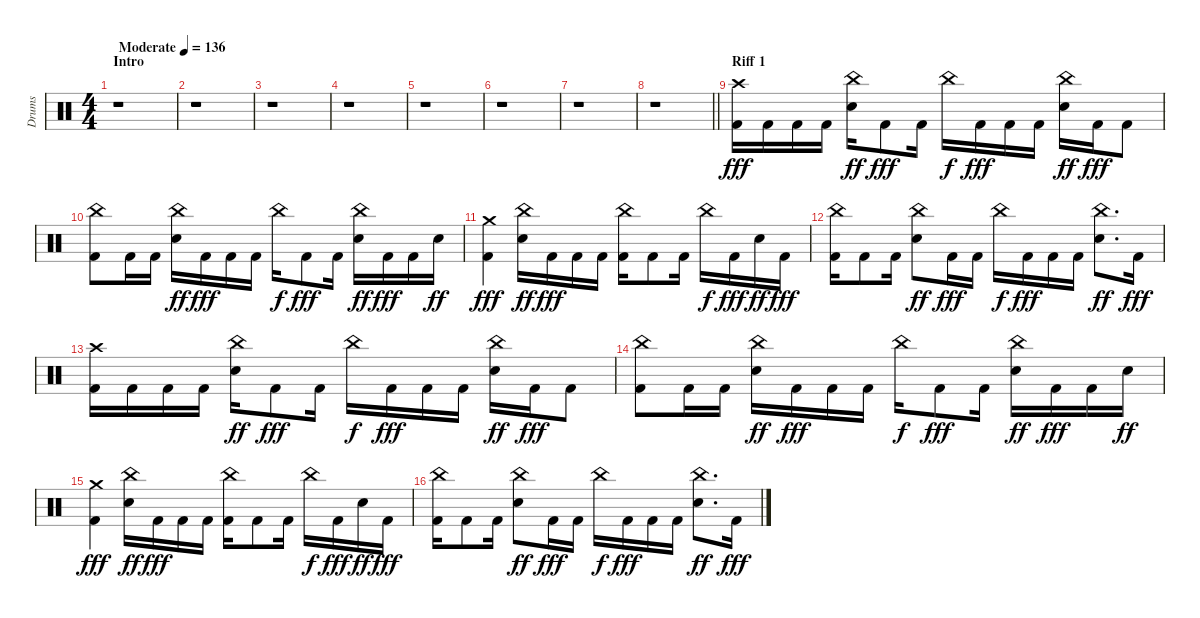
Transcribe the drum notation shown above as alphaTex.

\track ("Drums" "Drums") {instrument percussion}
\staff {score}
\articulation defaults
\ts (4 4)
\section ("" "Intro")
\tempo (136 "Moderate")
\clef neutral
\ks c
r.1{dy fff} |
r.1 |
r.1 |
r.1 |
r.1 |
r.1 |
r.1 |
\barLineRight lightlight
r.1 |
\section ("" "Riff 1")
("Kick (hit) 2" "Crash high (hit)").16 "Kick (hit) 2".16 "Kick (hit) 2".16 "Kick (hit) 2".16 ("Snare (hit) 2" "China (hit)").16{dy ff} "Kick (hit) 2".8{dy fff} "Kick (hit) 2".16 "China (hit)".16{dy f} "Kick (hit) 2".16{dy fff} "Kick (hit) 2".16 "Kick (hit) 2".16 ("Snare (hit) 2" "China (hit)").16{dy ff} "Kick (hit) 2".16{dy fff} "Kick (hit) 2".8 |
("Kick (hit) 2" "China (hit)").8 "Kick (hit) 2".16 "Kick (hit) 2".16 ("Snare (hit) 2" "China (hit)").16{dy ff} "Kick (hit) 2".16{dy fff} "Kick (hit) 2".16 "Kick (hit) 2".16 "China (hit)".16{dy f} "Kick (hit) 2".8{dy fff} "Kick (hit) 2".16 ("Snare (hit) 2" "China (hit)").16{dy ff} "Kick (hit) 2".16{dy fff} "Kick (hit) 2".16 "Snare (hit) 2".16{dy ff} |
("Kick (hit) 2" "Crash medium (hit)").4{dy fff} ("Snare (hit) 2" "China (hit)").16{dy ff} "Kick (hit) 2".16{dy fff} "Kick (hit) 2".16 "Kick (hit) 2".16 ("Kick (hit) 2" "China (hit)").16 "Kick (hit) 2".8 "Kick (hit) 2".16 "China (hit)".16{dy f} "Kick (hit) 2".16{dy fff} "Snare (hit) 2".16{dy ff} "Kick (hit) 2".16{dy fff} |
("Kick (hit) 2" "China (hit)").16 "Kick (hit) 2".8 "Kick (hit) 2".16 ("Snare (hit) 2" "China (hit)").8{dy ff} "Kick (hit) 2".16{dy fff} "Kick (hit) 2".16 "China (hit)".16{dy f} "Kick (hit) 2".16{dy fff} "Kick (hit) 2".16 "Kick (hit) 2".16 ("Snare (hit) 2" "China (hit)").8{d dy ff} "Kick (hit) 2".16{dy fff} |
("Kick (hit) 2" "Crash high (hit)").16 "Kick (hit) 2".16 "Kick (hit) 2".16 "Kick (hit) 2".16 ("Snare (hit) 2" "China (hit)").16{dy ff} "Kick (hit) 2".8{dy fff} "Kick (hit) 2".16 "China (hit)".16{dy f} "Kick (hit) 2".16{dy fff} "Kick (hit) 2".16 "Kick (hit) 2".16 ("Snare (hit) 2" "China (hit)").16{dy ff} "Kick (hit) 2".16{dy fff} "Kick (hit) 2".8 |
("Kick (hit) 2" "China (hit)").8 "Kick (hit) 2".16 "Kick (hit) 2".16 ("Snare (hit) 2" "China (hit)").16{dy ff} "Kick (hit) 2".16{dy fff} "Kick (hit) 2".16 "Kick (hit) 2".16 "China (hit)".16{dy f} "Kick (hit) 2".8{dy fff} "Kick (hit) 2".16 ("Snare (hit) 2" "China (hit)").16{dy ff} "Kick (hit) 2".16{dy fff} "Kick (hit) 2".16 "Snare (hit) 2".16{dy ff} |
("Kick (hit) 2" "Crash medium (hit)").4{dy fff} ("Snare (hit) 2" "China (hit)").16{dy ff} "Kick (hit) 2".16{dy fff} "Kick (hit) 2".16 "Kick (hit) 2".16 ("Kick (hit) 2" "China (hit)").16 "Kick (hit) 2".8 "Kick (hit) 2".16 "China (hit)".16{dy f} "Kick (hit) 2".16{dy fff} "Snare (hit) 2".16{dy ff} "Kick (hit) 2".16{dy fff} |
("Kick (hit) 2" "China (hit)").16 "Kick (hit) 2".8 "Kick (hit) 2".16 ("Snare (hit) 2" "China (hit)").8{dy ff} "Kick (hit) 2".16{dy fff} "Kick (hit) 2".16 "China (hit)".16{dy f} "Kick (hit) 2".16{dy fff} "Kick (hit) 2".16 "Kick (hit) 2".16 ("Snare (hit) 2" "China (hit)").8{d dy ff} "Kick (hit) 2".16{dy fff}
